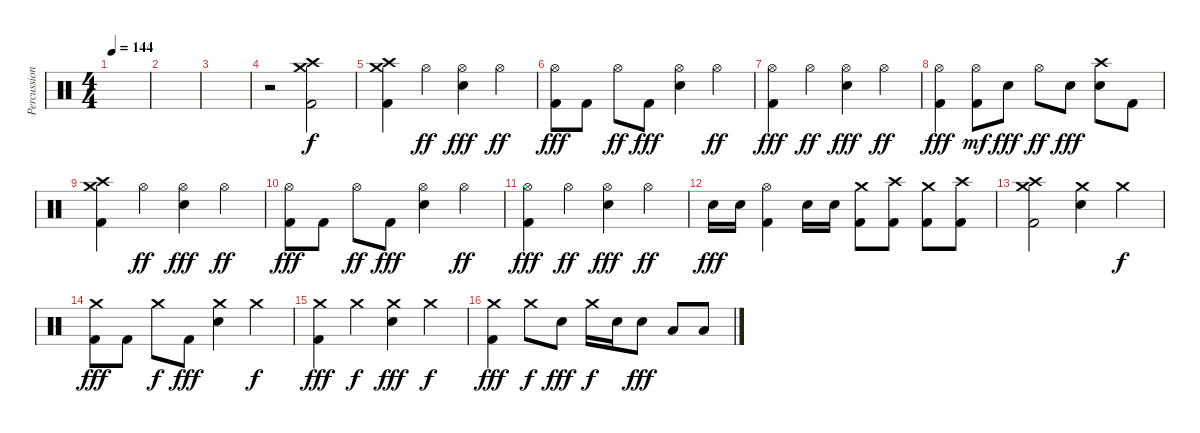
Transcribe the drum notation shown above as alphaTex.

\track ("Percussion" "Percussion") {instrument percussion}
\staff {score}
\articulation defaults
\ts (4 4)
\tempo 144
\clef neutral
\ks c
|
|
|
r.2 ("Crash high (hit)" "Crash medium (hit)" "Kick (hit) 2").2 |
("Crash high (hit)" "Crash medium (hit)" "Kick (hit) 2").4 "Hi-Hat (open)".4{dy ff} ("Hi-Hat (open)" "Electric Snare (hit)").4{dy fff} "Hi-Hat (open)".4{dy ff} |
("Hi-Hat (open)" "Kick (hit) 2").8{dy fff} "Kick (hit) 2".8 "Hi-Hat (open)".8{dy ff} "Kick (hit) 2".8{dy fff} ("Hi-Hat (open)" "Electric Snare (hit)").4 "Hi-Hat (open)".4{dy ff} |
("Hi-Hat (open)" "Kick (hit) 2").4{dy fff} "Hi-Hat (open)".4{dy ff} ("Hi-Hat (open)" "Electric Snare (hit)").4{dy fff} "Hi-Hat (open)".4{dy ff} |
("Hi-Hat (open)" "Kick (hit) 2").4{dy fff} ("Hi-Hat (open)" "Kick (hit) 2").8{dy mf} "Electric Snare (hit)".8{dy fff} "Hi-Hat (open)".8{dy ff} "Electric Snare (hit)".8{dy fff} ("Crash high (hit)" "Electric Snare (hit)").8 "Kick (hit) 2".8 |
("Crash high (hit)" "Crash medium (hit)" "Kick (hit) 2").4 "Hi-Hat (open)".4{dy ff} ("Hi-Hat (open)" "Electric Snare (hit)").4{dy fff} "Hi-Hat (open)".4{dy ff} |
("Hi-Hat (open)" "Kick (hit) 2").8{dy fff} "Kick (hit) 2".8 "Hi-Hat (open)".8{dy ff} "Kick (hit) 2".8{dy fff} ("Hi-Hat (open)" "Electric Snare (hit)").4 "Hi-Hat (open)".4{dy ff} |
("Hi-Hat (open)" "Kick (hit) 2").4{dy fff} "Hi-Hat (open)".4{dy ff} ("Hi-Hat (open)" "Electric Snare (hit)").4{dy fff} "Hi-Hat (open)".4{dy ff} |
"Electric Snare (hit)".16{dy fff} "Electric Snare (hit)".16 ("Hi-Hat (open)" "Kick (hit) 2").4 "Electric Snare (hit)".16 "Electric Snare (hit)".16 ("Crash medium (hit)" "Kick (hit) 2").8 ("Crash high (hit)" "Kick (hit) 2").8 ("Crash medium (hit)" "Kick (hit) 2").8 ("Crash high (hit)" "Kick (hit) 2").8 |
("Crash high (hit)" "Crash medium (hit)" "Kick (hit) 2").2 ("Crash medium (hit)" "Electric Snare (hit)").4 "Crash medium (hit)".4{dy f} |
("Crash medium (hit)" "Kick (hit) 2").8{dy fff} "Kick (hit) 2".8 "Crash medium (hit)".8{dy f} "Kick (hit) 2".8{dy fff} ("Crash medium (hit)" "Electric Snare (hit)").4 "Crash medium (hit)".4{dy f} |
("Crash medium (hit)" "Kick (hit) 2").4{dy fff} "Crash medium (hit)".4{dy f} ("Crash medium (hit)" "Electric Snare (hit)").4{dy fff} "Crash medium (hit)".4{dy f} |
("Crash medium (hit)" "Kick (hit) 2").4{dy fff} "Crash medium (hit)".8{dy f} "Electric Snare (hit)".8{dy fff} "Crash medium (hit)".16{dy f} "Electric Snare (hit)".16 "Electric Snare (hit)".8{dy fff} "Low Tom (hit)".8 "Low Floor Tom (hit)".8
